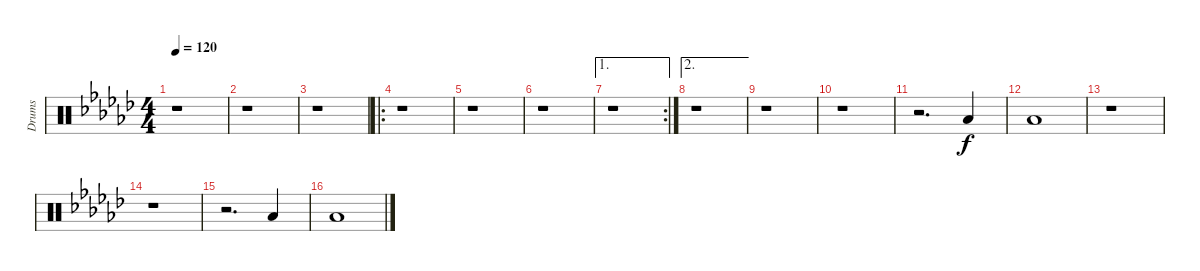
\track ("Drums" "Drums") {instrument percussion}
\staff {score}
\articulation defaults
\ts (4 4)
\tempo 120
\clef neutral
\ks gb
r.1{dy f} |
r.1 |
r.1 |
\ro
r.1 |
r.1 |
r.1 |
\ae 1
\rc 2
r.1 |
\ae 2
r.1 |
r.1 |
r.1 |
r.2{d} "Low Floor Tom (hit)".4 |
"Low Floor Tom (hit)".1 |
r.1 |
r.1 |
r.2{d} "Low Floor Tom (hit)".4 |
"Low Floor Tom (hit)".1
